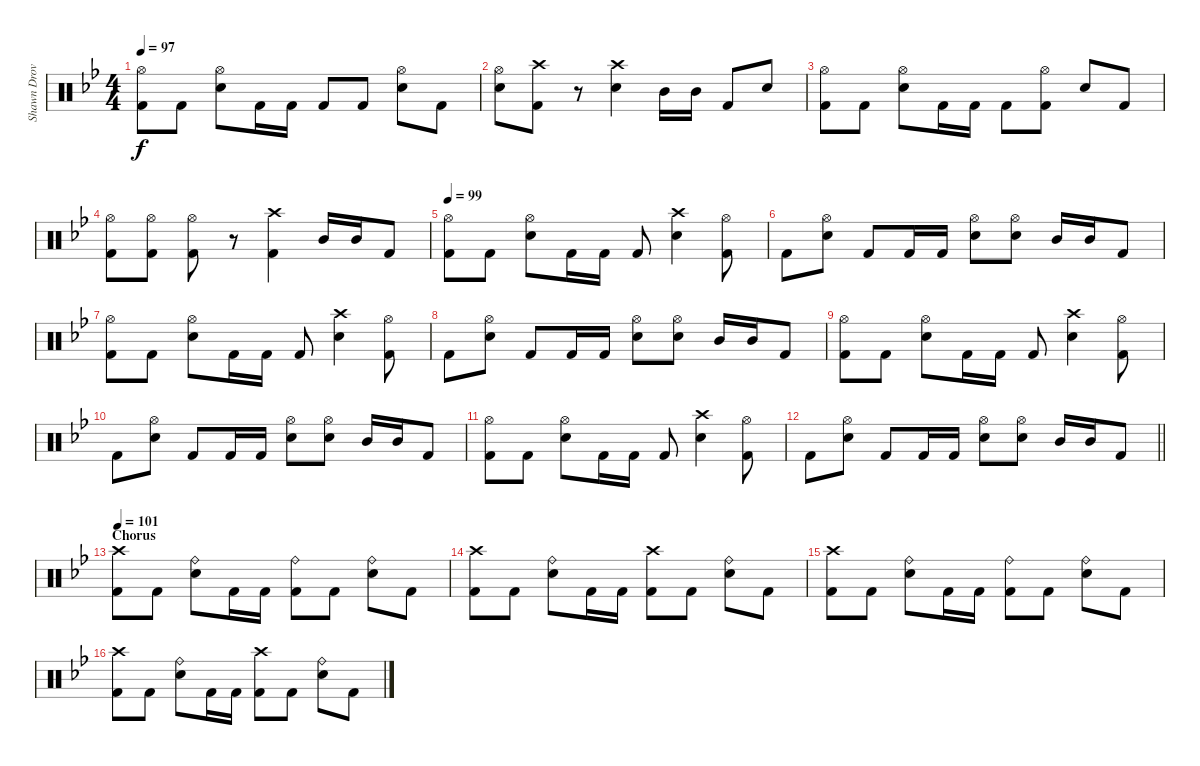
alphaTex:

\track ("Shawn Drover" "Shawn Drov") {instrument percussion}
\staff {score}
\articulation defaults
\ts (4 4)
\tempo 97
\clef neutral
\ks bb
("Hi-Hat (open)" "Kick (hit) 2").8{dy f} "Kick (hit) 2".8 ("Hi-Hat (open)" "Snare (hit) 2").8 "Kick (hit) 2".16 "Kick (hit) 2".16 "Kick (hit) 2".8 "Kick (hit) 2".8 ("Hi-Hat (open)" "Snare (hit) 2").8 "Kick (hit) 2".8 |
("Hi-Hat (open)" "Snare (hit) 2").8 ("Crash high (hit)" "Kick (hit) 2").8 r.8 ("Crash high (hit)" "Snare (hit) 2").4 "Mid Tom (hit)".16 "Mid Tom (hit)".16 "Kick (hit) 2".8 "Snare (hit) 2".8 |
("Hi-Hat (open)" "Kick (hit) 2").8 "Kick (hit) 2".8 ("Hi-Hat (open)" "Snare (hit) 2").8 "Kick (hit) 2".16 "Kick (hit) 2".16 "Kick (hit) 2".8 ("Hi-Hat (open)" "Kick (hit) 2").8 "Snare (hit) 2".8 "Kick (hit) 2".8 |
("Hi-Hat (open)" "Kick (hit) 2").8 ("Hi-Hat (open)" "Kick (hit) 2").8 ("Hi-Hat (open)" "Kick (hit) 2").8 r.8 ("Crash high (hit)" "Kick (hit) 2").4 "Mid Tom (hit)".16 "Mid Tom (hit)".16 "Kick (hit) 2".8 |
\tempo 99
("Hi-Hat (open)" "Kick (hit) 2").8 "Kick (hit) 2".8 ("Hi-Hat (open)" "Snare (hit) 2").8 "Kick (hit) 2".16 "Kick (hit) 2".16 "Kick (hit) 2".8 ("Crash high (hit)" "Snare (hit) 2").4 ("Hi-Hat (open)" "Kick (hit) 2").8 |
"Kick (hit) 2".8 ("Hi-Hat (open)" "Snare (hit) 2").8 "Kick (hit) 2".8 "Kick (hit) 2".16 "Kick (hit) 2".16 ("Hi-Hat (open)" "Snare (hit) 2").8 ("Hi-Hat (open)" "Snare (hit) 2").8 "Mid Tom (hit)".16 "Mid Tom (hit)".16 "Kick (hit) 2".8 |
("Hi-Hat (open)" "Kick (hit) 2").8 "Kick (hit) 2".8 ("Hi-Hat (open)" "Snare (hit) 2").8 "Kick (hit) 2".16 "Kick (hit) 2".16 "Kick (hit) 2".8 ("Crash high (hit)" "Snare (hit) 2").4 ("Hi-Hat (open)" "Kick (hit) 2").8 |
"Kick (hit) 2".8 ("Hi-Hat (open)" "Snare (hit) 2").8 "Kick (hit) 2".8 "Kick (hit) 2".16 "Kick (hit) 2".16 ("Hi-Hat (open)" "Snare (hit) 2").8 ("Hi-Hat (open)" "Snare (hit) 2").8 "Mid Tom (hit)".16 "Mid Tom (hit)".16 "Kick (hit) 2".8 |
("Hi-Hat (open)" "Kick (hit) 2").8 "Kick (hit) 2".8 ("Hi-Hat (open)" "Snare (hit) 2").8 "Kick (hit) 2".16 "Kick (hit) 2".16 "Kick (hit) 2".8 ("Crash high (hit)" "Snare (hit) 2").4 ("Hi-Hat (open)" "Kick (hit) 2").8 |
"Kick (hit) 2".8 ("Hi-Hat (open)" "Snare (hit) 2").8 "Kick (hit) 2".8 "Kick (hit) 2".16 "Kick (hit) 2".16 ("Hi-Hat (open)" "Snare (hit) 2").8 ("Hi-Hat (open)" "Snare (hit) 2").8 "Mid Tom (hit)".16 "Mid Tom (hit)".16 "Kick (hit) 2".8 |
("Hi-Hat (open)" "Kick (hit) 2").8 "Kick (hit) 2".8 ("Hi-Hat (open)" "Snare (hit) 2").8 "Kick (hit) 2".16 "Kick (hit) 2".16 "Kick (hit) 2".8 ("Crash high (hit)" "Snare (hit) 2").4 ("Hi-Hat (open)" "Kick (hit) 2").8 |
\barLineRight lightlight "Kick (hit) 2".8
("Hi-Hat (open)" "Snare (hit) 2").8 "Kick (hit) 2".8 "Kick (hit) 2".16 "Kick (hit) 2".16 ("Hi-Hat (open)" "Snare (hit) 2").8 ("Hi-Hat (open)" "Snare (hit) 2").8 "Mid Tom (hit)".16 "Mid Tom (hit)".16 "Kick (hit) 2".8 |
\section ("" "Chorus")
\tempo 101
("Crash high (hit)" "Kick (hit) 2").8 "Kick (hit) 2".8 ("Ride (bell)" "Snare (hit) 2").8 "Kick (hit) 2".16 "Kick (hit) 2".16 ("Ride (bell)" "Kick (hit) 2").8 "Kick (hit) 2".8 ("Ride (bell)" "Snare (hit) 2").8 "Kick (hit) 2".8 |
("Crash high (hit)" "Kick (hit) 2").8 "Kick (hit) 2".8 ("Ride (bell)" "Snare (hit) 2").8 "Kick (hit) 2".16 "Kick (hit) 2".16 ("Crash high (hit)" "Kick (hit) 2").8 "Kick (hit) 2".8 ("Ride (bell)" "Snare (hit) 2").8 "Kick (hit) 2".8 |
("Crash high (hit)" "Kick (hit) 2").8 "Kick (hit) 2".8 ("Ride (bell)" "Snare (hit) 2").8 "Kick (hit) 2".16 "Kick (hit) 2".16 ("Ride (bell)" "Kick (hit) 2").8 "Kick (hit) 2".8 ("Ride (bell)" "Snare (hit) 2").8 "Kick (hit) 2".8 |
("Crash high (hit)" "Kick (hit) 2").8 "Kick (hit) 2".8 ("Ride (bell)" "Snare (hit) 2").8 "Kick (hit) 2".16 "Kick (hit) 2".16 ("Crash high (hit)" "Kick (hit) 2").8 "Kick (hit) 2".8 ("Ride (bell)" "Snare (hit) 2").8 "Kick (hit) 2".8
